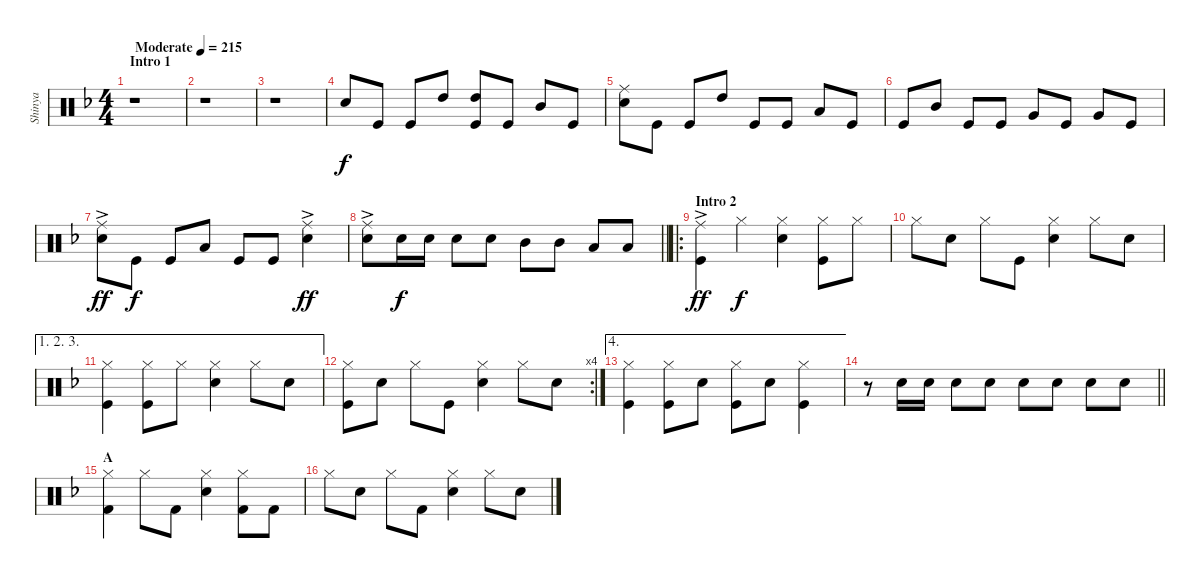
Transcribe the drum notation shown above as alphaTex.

\track ("Shinya" "Shinya") {instrument percussion}
\staff {score}
\articulation defaults
\ts (4 4)
\section ("" "Intro 1")
\tempo (215 "Moderate")
\clef neutral
\ks f
r.1{dy f} |
r.1 |
r.1 |
"Snare (hit) 2".8 "Kick (hit)".8 "Kick (hit)".8 "High Tom (hit)".8 ("High Tom (hit)" "Kick (hit)").8 "Kick (hit)".8 "Mid Tom (hit)".8 "Kick (hit)".8 |
("Ride (middle)" "Snare (hit) 2").8 "Kick (hit)".8 "Kick (hit)".8 "High Tom (hit)".8 "Kick (hit)".8 "Kick (hit)".8 "Low Tom (hit)".8 "Kick (hit)".8 |
"Kick (hit)".8 "Mid Tom (hit)".8 "Kick (hit)".8 "Kick (hit)".8 "Very Low Tom (hit)".8 "Kick (hit)".8 "Very Low Tom (hit)".8 "Kick (hit)".8 |
("Ride (middle)"{ac} "Snare (hit) 2").8{dy ff} "Kick (hit)".8{dy f} "Kick (hit)".8 "Low Tom (hit)".8 "Kick (hit)".8 "Kick (hit)".8 ("Ride (middle)"{ac} "Snare (hit) 2").4{dy ff} |
\barLineRight lightlight
("Ride (middle)"{ac} "Snare (hit) 2").8 "Snare (hit) 2".16{dy f} "Snare (hit) 2".16 "Snare (hit) 2".8 "Snare (hit) 2".8 "Mid Tom (hit)".8 "Mid Tom (hit)".8 "Low Tom (hit)".8 "Low Tom (hit)".8 |
\ro
\section ("" "Intro 2")
("Ride (middle)"{ac} "Kick (hit)").4{dy ff} "Hi-Hat (closed)".4{dy f} ("Hi-Hat (closed)" "Snare (hit) 2").4 ("Hi-Hat (closed)" "Kick (hit)").8 "Hi-Hat (closed)".8 |
"Hi-Hat (closed)".8 "Snare (hit) 2".8 "Hi-Hat (closed)".8 "Kick (hit)".8 ("Hi-Hat (closed)" "Snare (hit) 2").4 "Hi-Hat (closed)".8 "Snare (hit) 2".8 |
\ae (1 2 3)
("Hi-Hat (closed)" "Kick (hit)").4 ("Hi-Hat (closed)" "Kick (hit)").8 "Hi-Hat (closed)".8 ("Hi-Hat (closed)" "Snare (hit) 2").4 "Hi-Hat (closed)".8 "Snare (hit) 2".8 |
\rc 4
("Hi-Hat (closed)" "Kick (hit)").8 "Snare (hit) 2".8 "Hi-Hat (closed)".8 "Kick (hit)".8 ("Hi-Hat (closed)" "Snare (hit) 2").4 "Hi-Hat (closed)".8 "Snare (hit) 2".8 |
\ae 4
("Hi-Hat (closed)" "Kick (hit)").4 ("Hi-Hat (closed)" "Kick (hit)").8 "Snare (hit) 2".8 ("Hi-Hat (closed)" "Kick (hit)").8 "Snare (hit) 2".8 ("Hi-Hat (closed)" "Kick (hit)").4 |
\barLineRight lightlight
r.8 "Snare (hit) 2".16 "Snare (hit) 2".16 "Snare (hit) 2".8 "Snare (hit) 2".8 "Snare (hit) 2".8 "Snare (hit) 2".8 "Snare (hit) 2".8 "Snare (hit) 2".8 |
\section ("" "A")
("Hi-Hat (closed)" "Kick (hit) 2").4 "Hi-Hat (closed)".8 "Kick (hit) 2".8 ("Hi-Hat (closed)" "Snare (hit) 2").4 ("Hi-Hat (closed)" "Kick (hit) 2").8 "Kick (hit) 2".8 |
"Hi-Hat (closed)".8 "Snare (hit) 2".8 "Hi-Hat (closed)".8 "Kick (hit) 2".8 ("Hi-Hat (closed)" "Snare (hit) 2").4 "Hi-Hat (closed)".8 "Snare (hit) 2".8
